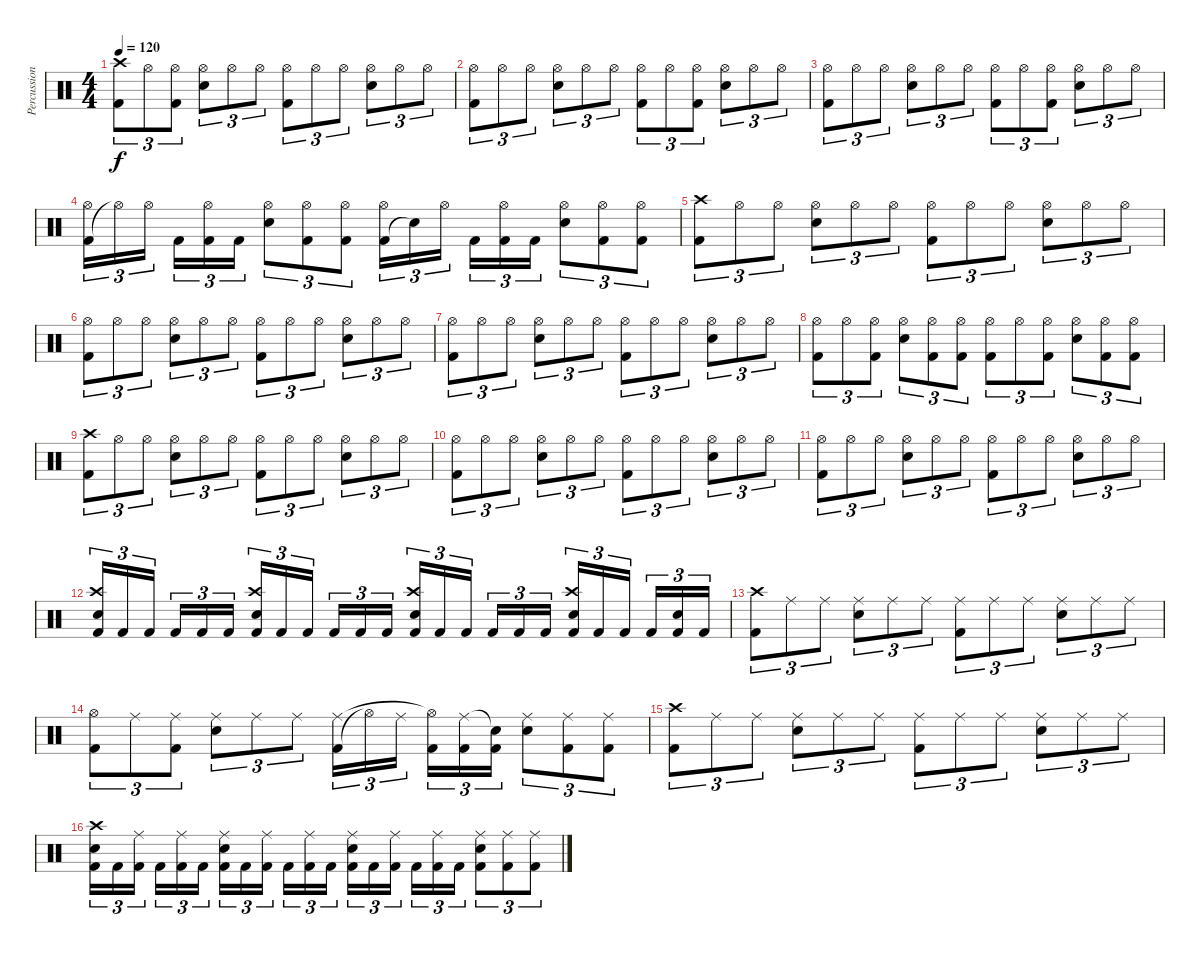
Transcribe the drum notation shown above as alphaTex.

\track ("Percussions" "Percussion") {instrument percussion}
\staff {score}
\articulation defaults
\ts (4 4)
\tempo 120
\clef neutral
\ks c
("Kick (hit) 2" "Crash high (hit)").8{tu (3 2) dy f} "Hi-Hat (open)".8{tu (3 2)} ("Kick (hit) 2" "Hi-Hat (open)").8{tu (3 2)} ("Snare (hit) 2" "Hi-Hat (open)").8{tu (3 2)} "Hi-Hat (open)".8{tu (3 2)} "Hi-Hat (open)".8{tu (3 2)} ("Kick (hit) 2" "Hi-Hat (open)").8{tu (3 2)} "Hi-Hat (open)".8{tu (3 2)} "Hi-Hat (open)".8{tu (3 2)} ("Snare (hit) 2" "Hi-Hat (open)").8{tu (3 2)} "Hi-Hat (open)".8{tu (3 2)} "Hi-Hat (open)".8{tu (3 2)} |
("Kick (hit) 2" "Hi-Hat (open)").8{tu (3 2)} "Hi-Hat (open)".8{tu (3 2)} "Hi-Hat (open)".8{tu (3 2)} ("Snare (hit) 2" "Hi-Hat (open)").8{tu (3 2)} "Hi-Hat (open)".8{tu (3 2)} "Hi-Hat (open)".8{tu (3 2)} ("Kick (hit) 2" "Hi-Hat (open)").8{tu (3 2)} "Hi-Hat (open)".8{tu (3 2)} ("Kick (hit) 2" "Hi-Hat (open)").8{tu (3 2)} ("Snare (hit) 2" "Hi-Hat (open)").8{tu (3 2)} "Hi-Hat (open)".8{tu (3 2)} "Hi-Hat (open)".8{tu (3 2)} |
("Kick (hit) 2" "Hi-Hat (open)").8{tu (3 2)} "Hi-Hat (open)".8{tu (3 2)} "Hi-Hat (open)".8{tu (3 2)} ("Snare (hit) 2" "Hi-Hat (open)").8{tu (3 2)} "Hi-Hat (open)".8{tu (3 2)} "Hi-Hat (open)".8{tu (3 2)} ("Kick (hit) 2" "Hi-Hat (open)").8{tu (3 2)} "Hi-Hat (open)".8{tu (3 2)} ("Kick (hit) 2" "Hi-Hat (open)").8{tu (3 2)} ("Snare (hit) 2" "Hi-Hat (open)").8{tu (3 2)} "Hi-Hat (open)".8{tu (3 2)} "Hi-Hat (open)".8{tu (3 2)} |
("Kick (hit) 2" "Hi-Hat (open)").16{tu (3 2)} "Hi-Hat (open)"{t}.16{tu (3 2)} "Hi-Hat (open)".16{tu (3 2)} "Kick (hit) 2".16{tu (3 2)} ("Kick (hit) 2" "Hi-Hat (open)").16{tu (3 2)} "Kick (hit) 2".16{tu (3 2)} ("Snare (hit) 2" "Hi-Hat (open)").8{tu (3 2)} ("Kick (hit) 2" "Hi-Hat (open)").8{tu (3 2)} ("Kick (hit) 2" "Hi-Hat (open)").8{tu (3 2)} ("Kick (hit) 2" "Hi-Hat (open)").16{tu (3 2)} "Snare (hit)"{t}.16{tu (3 2)} "Hi-Hat (open)".16{tu (3 2)} "Kick (hit) 2".16{tu (3 2)} ("Kick (hit) 2" "Hi-Hat (open)").16{tu (3 2)} "Kick (hit) 2".16{tu (3 2)} ("Snare (hit) 2" "Hi-Hat (open)").8{tu (3 2)} ("Kick (hit) 2" "Hi-Hat (open)").8{tu (3 2)} ("Kick (hit) 2" "Hi-Hat (open)").8{tu (3 2)} |
("Kick (hit) 2" "Crash high (hit)").8{tu (3 2)} "Hi-Hat (open)".8{tu (3 2)} "Hi-Hat (open)".8{tu (3 2)} ("Snare (hit) 2" "Hi-Hat (open)").8{tu (3 2)} "Hi-Hat (open)".8{tu (3 2)} "Hi-Hat (open)".8{tu (3 2)} ("Kick (hit) 2" "Hi-Hat (open)").8{tu (3 2)} "Hi-Hat (open)".8{tu (3 2)} "Hi-Hat (open)".8{tu (3 2)} ("Snare (hit) 2" "Hi-Hat (open)").8{tu (3 2)} "Hi-Hat (open)".8{tu (3 2)} "Hi-Hat (open)".8{tu (3 2)} |
("Kick (hit) 2" "Hi-Hat (open)").8{tu (3 2)} "Hi-Hat (open)".8{tu (3 2)} "Hi-Hat (open)".8{tu (3 2)} ("Snare (hit) 2" "Hi-Hat (open)").8{tu (3 2)} "Hi-Hat (open)".8{tu (3 2)} "Hi-Hat (open)".8{tu (3 2)} ("Kick (hit) 2" "Hi-Hat (open)").8{tu (3 2)} "Hi-Hat (open)".8{tu (3 2)} "Hi-Hat (open)".8{tu (3 2)} ("Snare (hit) 2" "Hi-Hat (open)").8{tu (3 2)} "Hi-Hat (open)".8{tu (3 2)} "Hi-Hat (open)".8{tu (3 2)} |
("Kick (hit) 2" "Hi-Hat (open)").8{tu (3 2)} "Hi-Hat (open)".8{tu (3 2)} "Hi-Hat (open)".8{tu (3 2)} ("Snare (hit) 2" "Hi-Hat (open)").8{tu (3 2)} "Hi-Hat (open)".8{tu (3 2)} "Hi-Hat (open)".8{tu (3 2)} ("Kick (hit) 2" "Hi-Hat (open)").8{tu (3 2)} "Hi-Hat (open)".8{tu (3 2)} "Hi-Hat (open)".8{tu (3 2)} ("Snare (hit) 2" "Hi-Hat (open)").8{tu (3 2)} "Hi-Hat (open)".8{tu (3 2)} "Hi-Hat (open)".8{tu (3 2)} |
("Kick (hit) 2" "Hi-Hat (open)").8{tu (3 2)} "Hi-Hat (open)".8{tu (3 2)} ("Kick (hit) 2" "Hi-Hat (open)").8{tu (3 2)} ("Snare (hit) 2" "Hi-Hat (open)").8{tu (3 2)} ("Kick (hit) 2" "Hi-Hat (open)").8{tu (3 2)} ("Kick (hit) 2" "Hi-Hat (open)").8{tu (3 2)} ("Kick (hit) 2" "Hi-Hat (open)").8{tu (3 2)} "Hi-Hat (open)".8{tu (3 2)} ("Kick (hit) 2" "Hi-Hat (open)").8{tu (3 2)} ("Snare (hit) 2" "Hi-Hat (open)").8{tu (3 2)} ("Kick (hit) 2" "Hi-Hat (open)").8{tu (3 2)} ("Kick (hit) 2" "Hi-Hat (open)").8{tu (3 2)} |
("Kick (hit) 2" "Crash high (hit)").8{tu (3 2)} "Hi-Hat (open)".8{tu (3 2)} "Hi-Hat (open)".8{tu (3 2)} ("Snare (hit) 2" "Hi-Hat (open)").8{tu (3 2)} "Hi-Hat (open)".8{tu (3 2)} "Hi-Hat (open)".8{tu (3 2)} ("Kick (hit) 2" "Hi-Hat (open)").8{tu (3 2)} "Hi-Hat (open)".8{tu (3 2)} "Hi-Hat (open)".8{tu (3 2)} ("Snare (hit) 2" "Hi-Hat (open)").8{tu (3 2)} "Hi-Hat (open)".8{tu (3 2)} "Hi-Hat (open)".8{tu (3 2)} |
("Kick (hit) 2" "Hi-Hat (open)").8{tu (3 2)} "Hi-Hat (open)".8{tu (3 2)} "Hi-Hat (open)".8{tu (3 2)} ("Snare (hit) 2" "Hi-Hat (open)").8{tu (3 2)} "Hi-Hat (open)".8{tu (3 2)} "Hi-Hat (open)".8{tu (3 2)} ("Kick (hit) 2" "Hi-Hat (open)").8{tu (3 2)} "Hi-Hat (open)".8{tu (3 2)} "Hi-Hat (open)".8{tu (3 2)} ("Snare (hit) 2" "Hi-Hat (open)").8{tu (3 2)} "Hi-Hat (open)".8{tu (3 2)} "Hi-Hat (open)".8{tu (3 2)} |
("Kick (hit) 2" "Hi-Hat (open)").8{tu (3 2)} "Hi-Hat (open)".8{tu (3 2)} "Hi-Hat (open)".8{tu (3 2)} ("Snare (hit) 2" "Hi-Hat (open)").8{tu (3 2)} "Hi-Hat (open)".8{tu (3 2)} "Hi-Hat (open)".8{tu (3 2)} ("Kick (hit) 2" "Hi-Hat (open)").8{tu (3 2)} "Hi-Hat (open)".8{tu (3 2)} "Hi-Hat (open)".8{tu (3 2)} ("Snare (hit) 2" "Hi-Hat (open)").8{tu (3 2)} "Hi-Hat (open)".8{tu (3 2)} "Hi-Hat (open)".8{tu (3 2)} |
("Kick (hit) 2" "Snare (hit) 2" "Crash high (hit)").16{tu (3 2)} "Kick (hit) 2".16{tu (3 2)} "Kick (hit) 2".16{tu (3 2)} "Kick (hit) 2".16{tu (3 2)} "Kick (hit) 2".16{tu (3 2)} "Kick (hit) 2".16{tu (3 2)} ("Kick (hit) 2" "Snare (hit) 2" "Crash high (hit)").16{tu (3 2)} "Kick (hit) 2".16{tu (3 2)} "Kick (hit) 2".16{tu (3 2)} "Kick (hit) 2".16{tu (3 2)} "Kick (hit) 2".16{tu (3 2)} "Kick (hit) 2".16{tu (3 2)} ("Kick (hit) 2" "Snare (hit) 2" "Crash high (hit)").16{tu (3 2)} "Kick (hit) 2".16{tu (3 2)} "Kick (hit) 2".16{tu (3 2)} "Kick (hit) 2".16{tu (3 2)} "Kick (hit) 2".16{tu (3 2)} "Kick (hit) 2".16{tu (3 2)} ("Kick (hit) 2" "Snare (hit) 2" "Crash high (hit)").16{tu (3 2)} "Kick (hit) 2".16{tu (3 2)} "Kick (hit) 2".16{tu (3 2)} "Kick (hit) 2".16{tu (3 2)} ("Kick (hit) 2" "Snare (hit) 2").16{tu (3 2)} "Kick (hit) 2".16{tu (3 2)} |
("Kick (hit) 2" "Crash high (hit)").8{tu (3 2)} "Ride (middle)".8{tu (3 2)} "Ride (middle)".8{tu (3 2)} ("Snare (hit) 2" "Ride (middle)").8{tu (3 2)} "Ride (middle)".8{tu (3 2)} "Ride (middle)".8{tu (3 2)} ("Kick (hit) 2" "Ride (middle)").8{tu (3 2)} "Ride (middle)".8{tu (3 2)} "Ride (middle)".8{tu (3 2)} ("Snare (hit) 2" "Ride (middle)").8{tu (3 2)} "Ride (middle)".8{tu (3 2)} "Ride (middle)".8{tu (3 2)} |
("Kick (hit) 2" "Hi-Hat (open)").8{tu (3 2)} "Ride (middle)".8{tu (3 2)} ("Kick (hit) 2" "Ride (middle)").8{tu (3 2)} ("Snare (hit) 2" "Ride (middle)").8{tu (3 2)} "Ride (middle)".8{tu (3 2)} "Ride (middle)".8{tu (3 2)} ("Kick (hit) 2" "Ride (middle)").16{tu (3 2)} "Hi-Hat (open)"{t}.16{tu (3 2)} "Ride (middle)".16{tu (3 2)} ("Kick (hit) 2" "Hi-Hat (open)"{t}).16{tu (3 2)} ("Kick (hit) 2" "Ride (middle)").16{tu (3 2)} ("Kick (hit) 2" "Snare (hit)"{t}).16{tu (3 2)} ("Snare (hit) 2" "Ride (middle)").8{tu (3 2)} ("Kick (hit) 2" "Ride (middle)").8{tu (3 2)} ("Kick (hit) 2" "Ride (middle)").8{tu (3 2)} |
("Kick (hit) 2" "Crash high (hit)").8{tu (3 2)} "Ride (middle)".8{tu (3 2)} "Ride (middle)".8{tu (3 2)} ("Snare (hit) 2" "Ride (middle)").8{tu (3 2)} "Ride (middle)".8{tu (3 2)} "Ride (middle)".8{tu (3 2)} ("Kick (hit) 2" "Ride (middle)").8{tu (3 2)} "Ride (middle)".8{tu (3 2)} "Ride (middle)".8{tu (3 2)} ("Snare (hit) 2" "Ride (middle)").8{tu (3 2)} "Ride (middle)".8{tu (3 2)} "Ride (middle)".8{tu (3 2)} |
("Kick (hit) 2" "Snare (hit) 2" "Crash high (hit)").16{tu (3 2)} "Kick (hit) 2".16{tu (3 2)} ("Kick (hit) 2" "Ride (middle)").16{tu (3 2)} "Kick (hit) 2".16{tu (3 2)} ("Kick (hit) 2" "Ride (middle)").16{tu (3 2)} "Kick (hit) 2".16{tu (3 2)} ("Kick (hit) 2" "Snare (hit) 2" "Ride (middle)").16{tu (3 2)} "Kick (hit) 2".16{tu (3 2)} ("Kick (hit) 2" "Ride (middle)").16{tu (3 2)} "Kick (hit) 2".16{tu (3 2)} ("Kick (hit) 2" "Ride (middle)").16{tu (3 2)} "Kick (hit) 2".16{tu (3 2)} ("Kick (hit) 2" "Snare (hit) 2" "Ride (middle)").16{tu (3 2)} "Kick (hit) 2".16{tu (3 2)} ("Kick (hit) 2" "Ride (middle)").16{tu (3 2)} "Kick (hit) 2".16{tu (3 2)} ("Kick (hit) 2" "Ride (middle)").16{tu (3 2)} "Kick (hit) 2".16{tu (3 2)} ("Kick (hit) 2" "Snare (hit) 2" "Ride (middle)").8{tu (3 2)} ("Kick (hit) 2" "Ride (middle)").8{tu (3 2)} ("Kick (hit) 2" "Ride (middle)").8{tu (3 2)}
